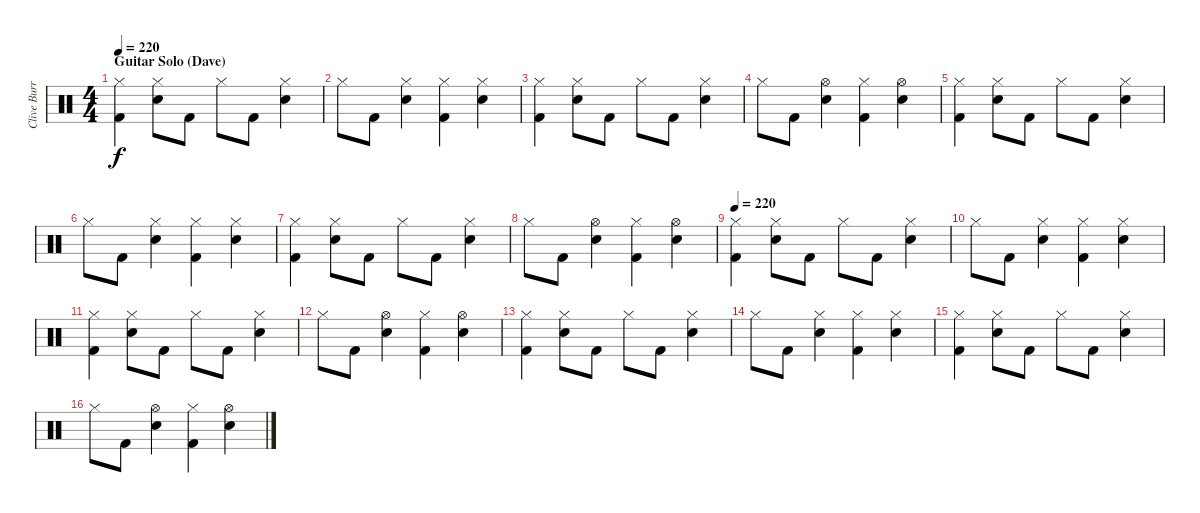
\track ("Clive Burr (Drums)" "Clive Burr") {instrument percussion}
\staff {score}
\articulation defaults
\ts (4 4)
\section ("" "Guitar Solo (Dave)")
\tempo 220
\clef neutral
\ks c
("Hi-Hat (closed)" "Kick (hit) 2").4{dy f} ("Electric Snare (hit)" "Hi-Hat (closed)").8 "Kick (hit) 2".8 "Hi-Hat (closed)".8 "Kick (hit) 2".8 ("Electric Snare (hit)" "Hi-Hat (closed)").4 |
"Hi-Hat (closed)".8 "Kick (hit) 2".8 ("Electric Snare (hit)" "Hi-Hat (closed)").4 ("Hi-Hat (closed)" "Kick (hit) 2").4 ("Electric Snare (hit)" "Hi-Hat (closed)").4 |
("Hi-Hat (closed)" "Kick (hit) 2").4 ("Electric Snare (hit)" "Hi-Hat (closed)").8 "Kick (hit) 2".8 "Hi-Hat (closed)".8 "Kick (hit) 2".8 ("Electric Snare (hit)" "Hi-Hat (closed)").4 |
"Hi-Hat (closed)".8 "Kick (hit) 2".8 ("Electric Snare (hit)" "Hi-Hat (open)").4 ("Hi-Hat (closed)" "Kick (hit) 2").4 ("Electric Snare (hit)" "Hi-Hat (open)").4 |
("Hi-Hat (closed)" "Kick (hit) 2").4 ("Electric Snare (hit)" "Hi-Hat (closed)").8 "Kick (hit) 2".8 "Hi-Hat (closed)".8 "Kick (hit) 2".8 ("Electric Snare (hit)" "Hi-Hat (closed)").4 |
"Hi-Hat (closed)".8 "Kick (hit) 2".8 ("Electric Snare (hit)" "Hi-Hat (closed)").4 ("Hi-Hat (closed)" "Kick (hit) 2").4 ("Electric Snare (hit)" "Hi-Hat (closed)").4 |
("Hi-Hat (closed)" "Kick (hit) 2").4 ("Electric Snare (hit)" "Hi-Hat (closed)").8 "Kick (hit) 2".8 "Hi-Hat (closed)".8 "Kick (hit) 2".8 ("Electric Snare (hit)" "Hi-Hat (closed)").4 |
"Hi-Hat (closed)".8 "Kick (hit) 2".8 ("Electric Snare (hit)" "Hi-Hat (open)").4 ("Hi-Hat (closed)" "Kick (hit) 2").4 ("Electric Snare (hit)" "Hi-Hat (open)").4 |
\tempo 220
("Hi-Hat (closed)" "Kick (hit) 2").4 ("Electric Snare (hit)" "Hi-Hat (closed)").8 "Kick (hit) 2".8 "Hi-Hat (closed)".8 "Kick (hit) 2".8 ("Electric Snare (hit)" "Hi-Hat (closed)").4 |
"Hi-Hat (closed)".8 "Kick (hit) 2".8 ("Electric Snare (hit)" "Hi-Hat (closed)").4 ("Hi-Hat (closed)" "Kick (hit) 2").4 ("Electric Snare (hit)" "Hi-Hat (closed)").4 |
("Hi-Hat (closed)" "Kick (hit) 2").4 ("Electric Snare (hit)" "Hi-Hat (closed)").8 "Kick (hit) 2".8 "Hi-Hat (closed)".8 "Kick (hit) 2".8 ("Electric Snare (hit)" "Hi-Hat (closed)").4 |
"Hi-Hat (closed)".8 "Kick (hit) 2".8 ("Electric Snare (hit)" "Hi-Hat (open)").4 ("Hi-Hat (closed)" "Kick (hit) 2").4 ("Electric Snare (hit)" "Hi-Hat (open)").4 |
("Hi-Hat (closed)" "Kick (hit) 2").4 ("Electric Snare (hit)" "Hi-Hat (closed)").8 "Kick (hit) 2".8 "Hi-Hat (closed)".8 "Kick (hit) 2".8 ("Electric Snare (hit)" "Hi-Hat (closed)").4 |
"Hi-Hat (closed)".8 "Kick (hit) 2".8 ("Electric Snare (hit)" "Hi-Hat (closed)").4 ("Hi-Hat (closed)" "Kick (hit) 2").4 ("Electric Snare (hit)" "Hi-Hat (closed)").4 |
("Hi-Hat (closed)" "Kick (hit) 2").4 ("Electric Snare (hit)" "Hi-Hat (closed)").8 "Kick (hit) 2".8 "Hi-Hat (closed)".8 "Kick (hit) 2".8 ("Electric Snare (hit)" "Hi-Hat (closed)").4 |
"Hi-Hat (closed)".8 "Kick (hit) 2".8 ("Electric Snare (hit)" "Hi-Hat (open)").4 ("Hi-Hat (closed)" "Kick (hit) 2").4 ("Electric Snare (hit)" "Hi-Hat (open)").4
